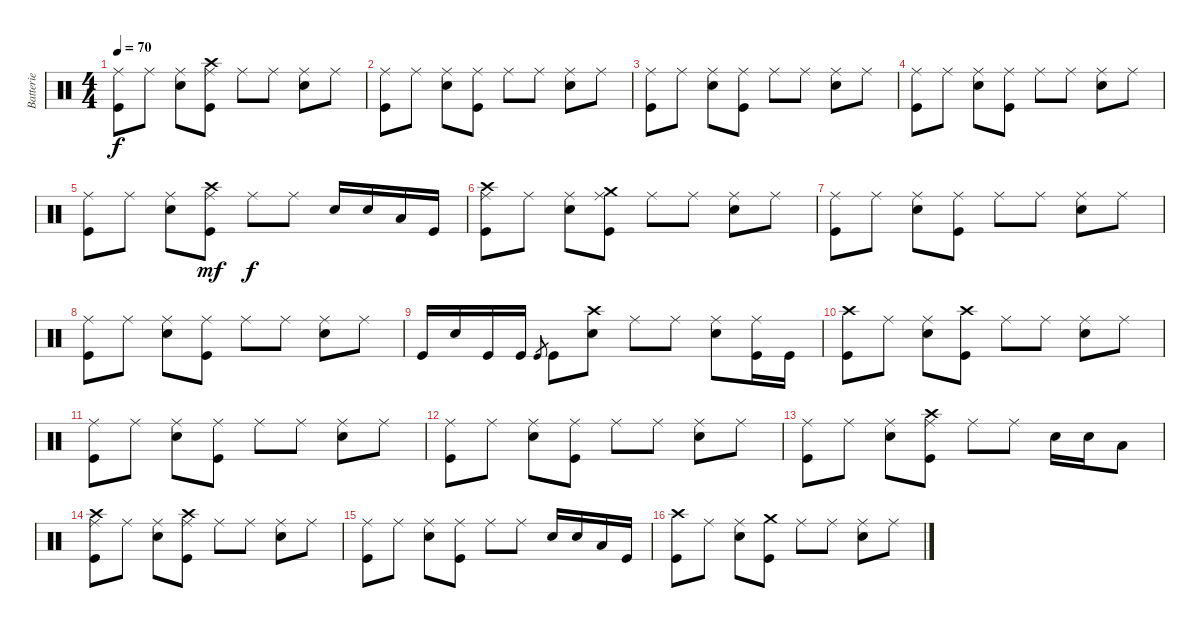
\track ("Batterie" "Batterie") {instrument percussion}
\staff {score}
\articulation defaults
\ts (4 4)
\tempo 70
\clef neutral
\ks c
("Ride (middle)" "Kick (hit)").8{dy f} "Ride (middle)".8 ("Ride (middle)" "Snare (hit) 2").8 ("Ride (middle)" "Crash high (hit)" "Kick (hit)").8 "Ride (middle)".8 "Ride (middle)".8 ("Ride (middle)" "Snare (hit) 2").8 "Ride (middle)".8 |
("Ride (middle)" "Kick (hit)").8 "Ride (middle)".8 ("Ride (middle)" "Snare (hit) 2").8 ("Ride (middle)" "Kick (hit)").8 "Ride (middle)".8 "Ride (middle)".8 ("Ride (middle)" "Snare (hit) 2").8 "Ride (middle)".8 |
("Ride (middle)" "Kick (hit)").8 "Ride (middle)".8 ("Ride (middle)" "Snare (hit) 2").8 ("Ride (middle)" "Kick (hit)").8 "Ride (middle)".8 "Ride (middle)".8 ("Ride (middle)" "Snare (hit) 2").8 "Ride (middle)".8 |
("Ride (middle)" "Kick (hit)").8 "Ride (middle)".8 ("Ride (middle)" "Snare (hit) 2").8 ("Ride (middle)" "Kick (hit)").8 "Ride (middle)".8 "Ride (middle)".8 ("Ride (middle)" "Snare (hit) 2").8 "Ride (middle)".8 |
("Ride (middle)" "Kick (hit)").8 "Ride (middle)".8 ("Ride (middle)" "Snare (hit) 2").8 ("Ride (middle)" "Crash high (hit)" "Kick (hit)").8{dy mf} "Ride (middle)".8{dy f} "Ride (middle)".8 "Snare (hit) 2".16 "Snare (hit) 2".16 "Low Tom (hit)".16 "Kick (hit)".16 |
("Ride (middle)" "Crash high (hit)" "Kick (hit)").8 "Ride (middle)".8 ("Ride (middle)" "Snare (hit) 2").8 ("Ride (middle)" "Crash medium (hit)" "Kick (hit)").8 "Ride (middle)".8 "Ride (middle)".8 ("Ride (middle)" "Snare (hit) 2").8 "Ride (middle)".8 |
("Ride (middle)" "Kick (hit)").8 "Ride (middle)".8 ("Ride (middle)" "Snare (hit) 2").8 ("Ride (middle)" "Kick (hit)").8 "Ride (middle)".8 "Ride (middle)".8 ("Ride (middle)" "Snare (hit) 2").8 "Ride (middle)".8 |
("Ride (middle)" "Kick (hit)").8 "Ride (middle)".8 ("Ride (middle)" "Snare (hit) 2").8 ("Ride (middle)" "Kick (hit)").8 "Ride (middle)".8 "Ride (middle)".8 ("Ride (middle)" "Snare (hit) 2").8 "Ride (middle)".8 |
"Kick (hit)".16 "Snare (hit) 2".16 "Kick (hit)".16 "Kick (hit)".16 "Kick (hit)".8{gr} "Kick (hit)".8 ("Crash high (hit)" "Snare (hit) 2").8 "Ride (middle)".8 "Ride (middle)".8 ("Ride (middle)" "Snare (hit) 2").8 ("Ride (middle)" "Kick (hit)").16 "Kick (hit)".16 |
("Crash high (hit)" "Kick (hit)").8 "Ride (middle)".8 ("Ride (middle)" "Snare (hit) 2").8 ("Crash high (hit)" "Kick (hit)").8 "Ride (middle)".8 "Ride (middle)".8 ("Ride (middle)" "Snare (hit) 2").8 "Ride (middle)".8 |
("Ride (middle)" "Kick (hit)").8 "Ride (middle)".8 ("Ride (middle)" "Snare (hit) 2").8 ("Ride (middle)" "Kick (hit)").8 "Ride (middle)".8 "Ride (middle)".8 ("Ride (middle)" "Snare (hit) 2").8 "Ride (middle)".8 |
("Ride (middle)" "Kick (hit)").8 "Ride (middle)".8 ("Ride (middle)" "Snare (hit) 2").8 ("Ride (middle)" "Kick (hit)").8 "Ride (middle)".8 "Ride (middle)".8 ("Ride (middle)" "Snare (hit) 2").8 "Ride (middle)".8 |
("Ride (middle)" "Kick (hit)").8 "Ride (middle)".8 ("Ride (middle)" "Snare (hit) 2").8 ("Ride (middle)" "Crash high (hit)" "Kick (hit)").8 "Ride (middle)".8 "Ride (middle)".8 "Snare (hit) 2".16 "Snare (hit) 2".16 "Low Tom (hit)".8 |
("Ride (middle)" "Crash high (hit)" "Kick (hit)").8 "Ride (middle)".8 ("Ride (middle)" "Snare (hit) 2").8 ("Ride (middle)" "Crash high (hit)" "Kick (hit)").8 "Ride (middle)".8 "Ride (middle)".8 ("Ride (middle)" "Snare (hit) 2").8 "Ride (middle)".8 |
("Ride (middle)" "Kick (hit)").8 "Ride (middle)".8 ("Ride (middle)" "Snare (hit) 2").8 ("Ride (middle)" "Kick (hit)").8 "Ride (middle)".8 "Ride (middle)".8 "Snare (hit) 2".16 "Snare (hit) 2".16 "Low Tom (hit)".16 "Kick (hit)".16 |
("Crash high (hit)" "Kick (hit)").8 "Ride (middle)".8 ("Ride (middle)" "Snare (hit) 2").8 ("Crash medium (hit)" "Kick (hit)").8 "Ride (middle)".8 "Ride (middle)".8 ("Ride (middle)" "Snare (hit) 2").8 "Ride (middle)".8
